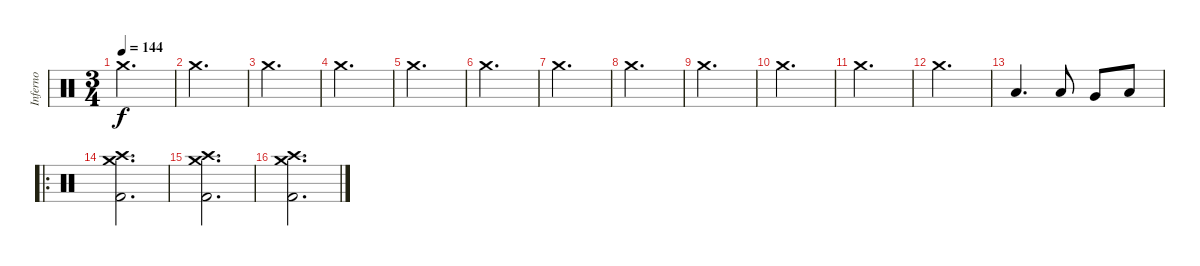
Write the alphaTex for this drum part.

\track ("Inferno" "Inferno") {instrument percussion}
\staff {score}
\articulation defaults
\ts (3 4)
\tempo 144
\clef neutral
\ks c "Crash medium (hit)".2{d dy f}
|
"Crash medium (hit)".2{d} |
"Crash medium (hit)".2{d} |
"Crash medium (hit)".2{d} |
"Crash medium (hit)".2{d} |
"Crash medium (hit)".2{d} |
"Crash medium (hit)".2{d} |
"Crash medium (hit)".2{d} |
"Crash medium (hit)".2{d} |
"Crash medium (hit)".2{d} |
"Crash medium (hit)".2{d} |
"Crash medium (hit)".2{d} |
"Low Tom (hit)".4{d} "Low Tom (hit)".8 "Very Low Tom (hit)".8 "Low Floor Tom (hit)".8 |
\ro
("Crash medium (hit)" "Crash high (hit)" "Kick (hit) 2").2{d} |
("Crash medium (hit)" "Crash high (hit)" "Kick (hit) 2").2{d} |
("Crash medium (hit)" "Crash high (hit)" "Kick (hit) 2").2{d}
